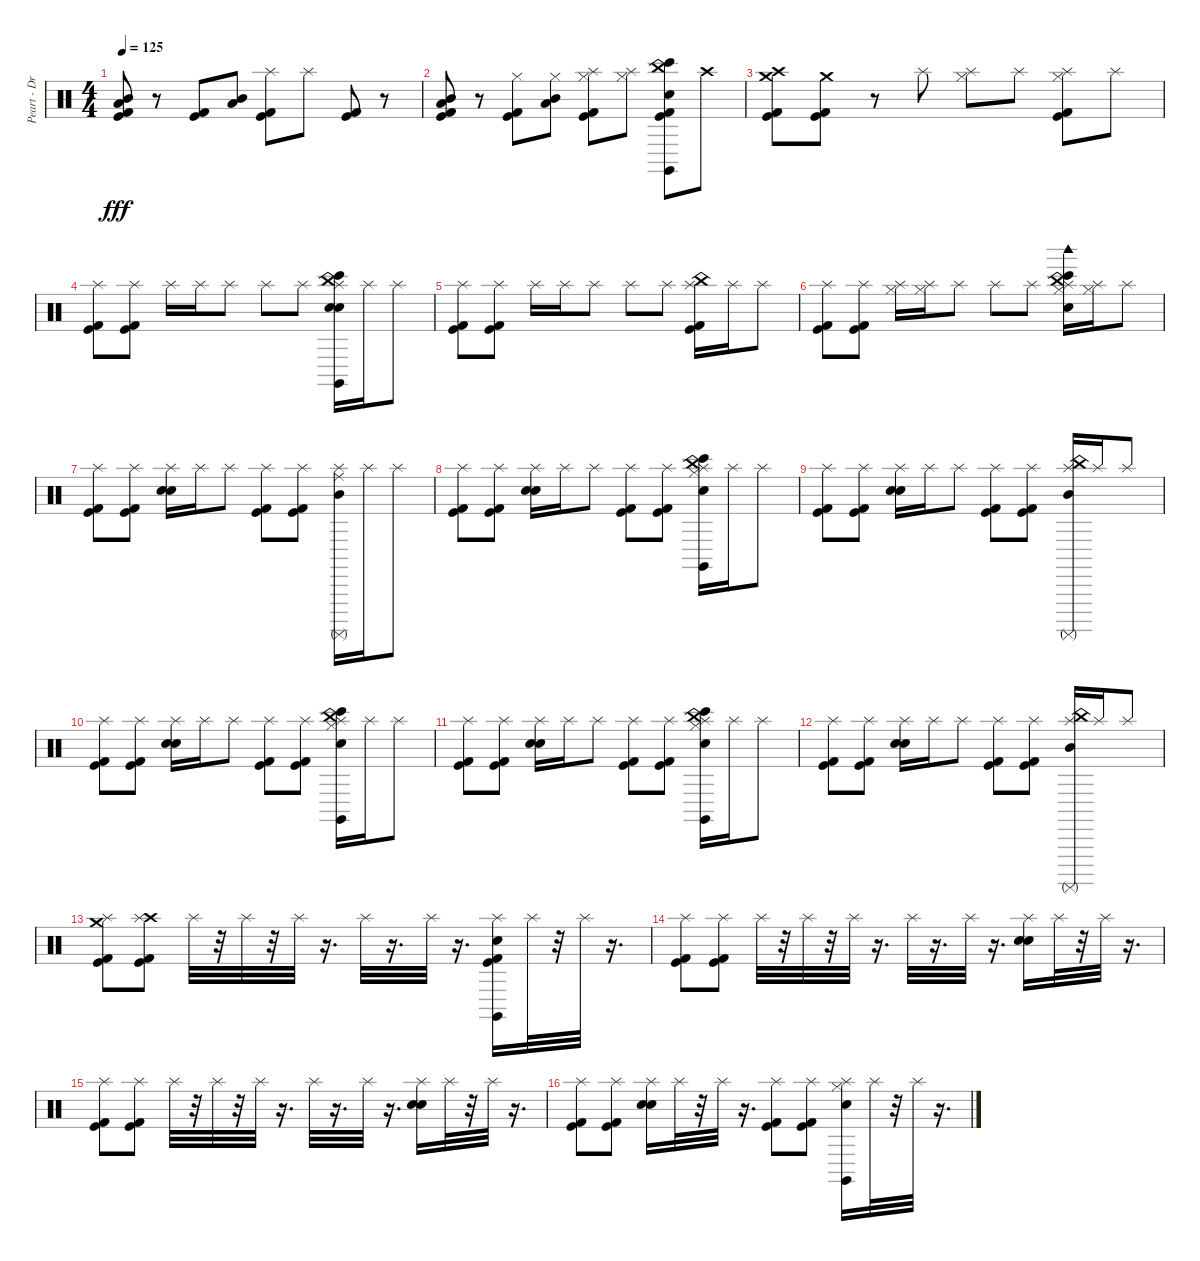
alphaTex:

\track ("Peart - Drums" "Peart - Dr") {instrument percussion}
\staff {score}
\articulation defaults
\ts (4 4)
\tempo 125
\clef neutral
\ks c
("Kick (hit)" "Low Tom (hit)" "Kick (hit) 2" "Mid Tom (hit)").8{dy fff} r.8 ("Kick (hit) 2" "Kick (hit)").8 ("Low Tom (hit)" "Mid Tom (hit)").8 ("Kick (hit) 2" "Splash (hit)" "Kick (hit)").8 "Splash (hit)".8 ("Kick (hit) 2" "Kick (hit)").8 r.8 |
("Kick (hit) 2" "Low Tom (hit)" "Kick (hit)" "Mid Tom (hit)").8 r.8 ("Kick (hit) 2" "Kick (hit)" "Hi-Hat (closed)").8 ("Low Tom (hit)" "Hi-Hat (closed)" "Mid Tom (hit)").8 ("Kick (hit) 2" "Splash (hit)" "Kick (hit)" "Hi-Hat (closed)").8 ("Splash (hit)" "Hi-Hat (closed)").8 ("Kick (hit) 2" "Kick (hit)" "Bongo High (hit)" "Claves (hit)" "Hand Clap (hit)" "China (hit)").8 "Crash high (hit)".8 |
("Crash medium (hit)" "Kick (hit) 2" "Kick (hit)" "Crash high (hit)").8 ("Kick (hit)" "Kick (hit) 2" "Crash medium (hit)").8 r.8 "Splash (hit)".8 ("Splash (hit)" "Hi-Hat (closed)").8 "Splash (hit)".8 ("Kick (hit) 2" "Kick (hit)" "Splash (hit)" "Hi-Hat (closed)").8 "Splash (hit)".8 |
("Kick (hit) 2" "Kick (hit)" "Splash (hit)").8 ("Kick (hit) 2" "Kick (hit)" "Splash (hit)").8 "Splash (hit)".16 "Splash (hit)".16 "Splash (hit)".8 "Splash (hit)".8 "Splash (hit)".8 ("Bongo High (hit)" "Electric Snare (hit)" "China (hit)" "Claves (hit)" "Splash (hit)" "Snare (hit) 2").16 "Splash (hit)".16 "Splash (hit)".8 |
("Kick (hit) 2" "Kick (hit)" "Splash (hit)").8 ("Kick (hit) 2" "Kick (hit)" "Splash (hit)").8 "Splash (hit)".16 "Splash (hit)".16 "Splash (hit)".8 "Splash (hit)".8 "Splash (hit)".8 ("Kick (hit)" "Kick (hit) 2" "Splash (hit)" "China (hit)").16 "Splash (hit)".16 "Splash (hit)".8 |
("Kick (hit) 2" "Kick (hit)" "Splash (hit)").8 ("Kick (hit) 2" "Kick (hit)" "Splash (hit)").8 ("Hi-Hat (closed)" "Splash (hit)").16 ("Hi-Hat (closed)" "Splash (hit)").16 "Splash (hit)".8 "Splash (hit)".8 "Splash (hit)".8 ("Hi-Hat (closed)" "Electric Snare (hit)" "China (hit)" "Woodblock high (hit)" "Bongo High (hit)" "Splash (hit)").16 ("Hi-Hat (closed)" "Splash (hit)").16 "Splash (hit)".8 |
("Kick (hit)" "Kick (hit) 2" "Splash (hit)").8 ("Kick (hit)" "Kick (hit) 2" "Splash (hit)").8 ("Snare (hit) 2" "Electric Snare (hit)" "Splash (hit)").16 "Splash (hit)".16 "Splash (hit)".8 ("Kick (hit) 2" "Kick (hit)" "Splash (hit)").8 ("Kick (hit) 2" "Kick (hit)" "Splash (hit)").8 ("Splash (hit)" "Mid Tom (hit)" "Surdo (mute)" "Ride (middle)").16 "Splash (hit)".16 "Splash (hit)".8 |
("Kick (hit) 2" "Kick (hit)" "Splash (hit)").8 ("Kick (hit) 2" "Kick (hit)" "Splash (hit)").8 ("Splash (hit)" "Electric Snare (hit)" "Snare (hit) 2").16 "Splash (hit)".16 "Splash (hit)".8 ("Kick (hit) 2" "Kick (hit)" "Splash (hit)").8 ("Kick (hit) 2" "Kick (hit)" "Splash (hit)").8 ("Splash (hit)" "Electric Snare (hit)" "Hi-Hat (closed)" "China (hit)" "Bongo High (hit)" "Claves (hit)").16 "Splash (hit)".16 "Splash (hit)".8 |
("Splash (hit)" "Kick (hit) 2" "Kick (hit)").8 ("Kick (hit)" "Kick (hit) 2" "Splash (hit)").8 ("Snare (hit) 2" "Electric Snare (hit)" "Splash (hit)").16 "Splash (hit)".16 "Splash (hit)".8 ("Kick (hit) 2" "Kick (hit)" "Splash (hit)").8 ("Kick (hit) 2" "Kick (hit)" "Splash (hit)").8 ("Splash (hit)" "Mid Tom (hit)" "Surdo (mute)" "China (hit)").16 "Splash (hit)".16 "Splash (hit)".8 |
("Kick (hit) 2" "Kick (hit)" "Splash (hit)").8 ("Kick (hit) 2" "Kick (hit)" "Splash (hit)").8 ("Splash (hit)" "Electric Snare (hit)" "Snare (hit) 2").16 "Splash (hit)".16 "Splash (hit)".8 ("Kick (hit) 2" "Kick (hit)" "Splash (hit)").8 ("Kick (hit) 2" "Kick (hit)" "Splash (hit)").8 ("Splash (hit)" "Electric Snare (hit)" "Hi-Hat (closed)" "China (hit)" "Bongo High (hit)" "Claves (hit)").16 "Splash (hit)".16 "Splash (hit)".8 |
("Splash (hit)" "Kick (hit)" "Kick (hit) 2").8 ("Kick (hit) 2" "Kick (hit)" "Splash (hit)").8 ("Splash (hit)" "Electric Snare (hit)" "Snare (hit) 2").16 "Splash (hit)".16 "Splash (hit)".8 ("Kick (hit) 2" "Kick (hit)" "Splash (hit)").8 ("Kick (hit) 2" "Kick (hit)" "Splash (hit)").8 ("Splash (hit)" "Electric Snare (hit)" "Hi-Hat (closed)" "China (hit)" "Bongo High (hit)" "Claves (hit)").16 "Splash (hit)".16 "Splash (hit)".8 |
("Splash (hit)" "Kick (hit) 2" "Kick (hit)").8 ("Kick (hit)" "Kick (hit) 2" "Splash (hit)").8 ("Snare (hit) 2" "Electric Snare (hit)" "Splash (hit)").16 "Splash (hit)".16 "Splash (hit)".8 ("Kick (hit) 2" "Kick (hit)" "Splash (hit)").8 ("Kick (hit) 2" "Kick (hit)" "Splash (hit)").8 ("Splash (hit)" "Mid Tom (hit)" "Surdo (mute)" "China (hit)").16 "Splash (hit)".16 "Splash (hit)".8 |
("Kick (hit) 2" "Kick (hit)" "Crash medium (hit)" "Splash (hit)").8 ("Kick (hit) 2" "Kick (hit)" "Crash high (hit)" "Splash (hit)").8 "Splash (hit)".32 r.32 "Splash (hit)".32 r.32 "Splash (hit)".32 r.16{d} "Splash (hit)".32 r.16{d} "Splash (hit)".32 r.16{d} ("Claves (hit)" "Kick (hit) 2" "Kick (hit)" "Electric Snare (hit)" "Splash (hit)").16 "Splash (hit)".32 r.32 "Splash (hit)".32 r.16{d} |
("Kick (hit) 2" "Kick (hit)" "Splash (hit)").8 ("Kick (hit) 2" "Kick (hit)" "Splash (hit)").8 "Splash (hit)".32 r.32 "Splash (hit)".32 r.32 "Splash (hit)".32 r.16{d} "Splash (hit)".32 r.16{d} "Splash (hit)".32 r.16{d} ("Electric Snare (hit)" "Splash (hit)" "Snare (hit) 2").16 "Splash (hit)".32 r.32 "Splash (hit)".32 r.16{d} |
("Kick (hit) 2" "Kick (hit)" "Splash (hit)").8 ("Kick (hit) 2" "Kick (hit)" "Splash (hit)").8 "Splash (hit)".32 r.32 "Splash (hit)".32 r.32 "Splash (hit)".32 r.16{d} "Splash (hit)".32 r.16{d} "Splash (hit)".32 r.16{d} ("Splash (hit)" "Electric Snare (hit)" "Snare (hit) 2").16 "Splash (hit)".32 r.32 "Splash (hit)".32 r.16{d} |
("Kick (hit) 2" "Kick (hit)" "Splash (hit)").8 ("Kick (hit) 2" "Kick (hit)" "Splash (hit)").8 ("Splash (hit)" "Electric Snare (hit)" "Snare (hit) 2").16 "Splash (hit)".32 r.32 "Splash (hit)".32 r.16{d} ("Splash (hit)" "Kick (hit) 2" "Kick (hit)").8 ("Splash (hit)" "Kick (hit) 2" "Kick (hit)").8 ("Splash (hit)" "Electric Snare (hit)" "Hi-Hat (closed)" "Claves (hit)").16 "Splash (hit)".32 r.32 "Splash (hit)".32 r.16{d}
